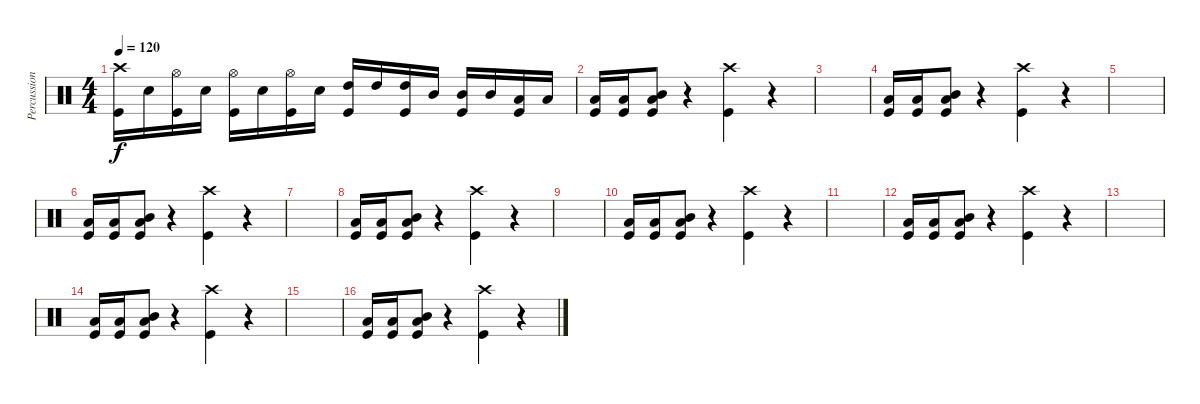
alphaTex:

\track ("Percussioni" "Percussion") {instrument percussion}
\staff {score}
\articulation defaults
\ts (4 4)
\tempo 120
\clef neutral
\ks c
("Crash high (hit)" "Kick (hit)").16{dy f} "Electric Snare (hit)".16 ("Hi-Hat (open)" "Kick (hit)").16 "Electric Snare (hit)".16 ("Hi-Hat (open)" "Kick (hit)").16 "Electric Snare (hit)".16 ("Hi-Hat (open)" "Kick (hit)").16 "Electric Snare (hit)".16 ("High Tom (hit)" "Kick (hit)").16 "High Tom (hit)".16 ("High Tom (hit)" "Kick (hit)").16 "Mid Tom (hit)".16 ("Mid Tom (hit)" "Kick (hit)").16 "Mid Tom (hit)".16 ("Low Tom (hit)" "Kick (hit)").16 "Low Tom (hit)".16 |
("Low Tom (hit)" "Kick (hit)").16 ("Low Tom (hit)" "Kick (hit)").16 ("Mid Tom (hit)" "Low Tom (hit)" "Kick (hit)").8 r.4 ("Crash high (hit)" "Kick (hit)").4 r.4 |
|
("Low Tom (hit)" "Kick (hit)").16 ("Low Tom (hit)" "Kick (hit)").16 ("Mid Tom (hit)" "Low Tom (hit)" "Kick (hit)").8 r.4 ("Crash high (hit)" "Kick (hit)").4 r.4 |
|
("Low Tom (hit)" "Kick (hit)").16 ("Low Tom (hit)" "Kick (hit)").16 ("Mid Tom (hit)" "Low Tom (hit)" "Kick (hit)").8 r.4 ("Crash high (hit)" "Kick (hit)").4 r.4 |
|
("Low Tom (hit)" "Kick (hit)").16 ("Low Tom (hit)" "Kick (hit)").16 ("Mid Tom (hit)" "Low Tom (hit)" "Kick (hit)").8 r.4 ("Crash high (hit)" "Kick (hit)").4 r.4 |
|
("Low Tom (hit)" "Kick (hit)").16{volume 14} ("Low Tom (hit)" "Kick (hit)").16 ("Mid Tom (hit)" "Low Tom (hit)" "Kick (hit)").8 r.4 ("Crash high (hit)" "Kick (hit)").4 r.4 |
|
("Low Tom (hit)" "Kick (hit)").16{volume 12} ("Low Tom (hit)" "Kick (hit)").16 ("Mid Tom (hit)" "Low Tom (hit)" "Kick (hit)").8 r.4 ("Crash high (hit)" "Kick (hit)").4 r.4 |
|
("Low Tom (hit)" "Kick (hit)").16{volume 10} ("Low Tom (hit)" "Kick (hit)").16 ("Mid Tom (hit)" "Low Tom (hit)" "Kick (hit)").8 r.4 ("Crash high (hit)" "Kick (hit)").4 r.4 |
|
("Low Tom (hit)" "Kick (hit)").16{volume 8} ("Low Tom (hit)" "Kick (hit)").16 ("Mid Tom (hit)" "Low Tom (hit)" "Kick (hit)").8 r.4 ("Crash high (hit)" "Kick (hit)").4 r.4
